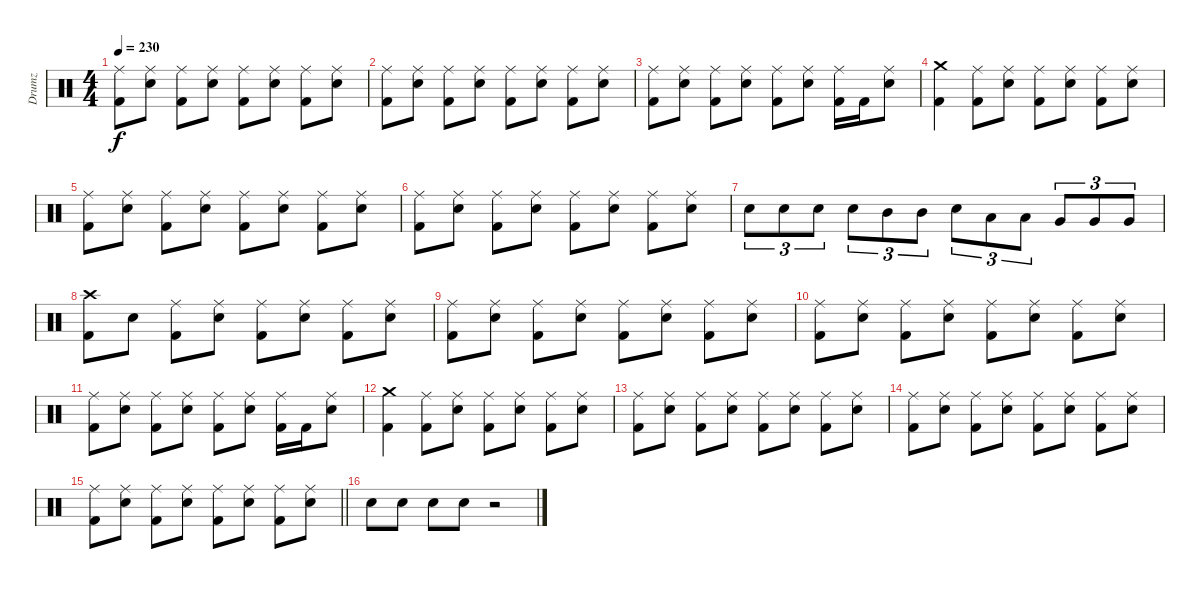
\track ("Drumz" "Drumz") {instrument percussion}
\staff {score}
\articulation defaults
\ts (4 4)
\tempo 230
\clef neutral
\ks c
("Ride (middle)" "Kick (hit) 2").8{dy f} ("Ride (middle)" "Electric Snare (hit)").8 ("Ride (middle)" "Kick (hit) 2").8 ("Ride (middle)" "Electric Snare (hit)").8 ("Ride (middle)" "Kick (hit) 2").8 ("Ride (middle)" "Electric Snare (hit)").8 ("Ride (middle)" "Kick (hit) 2").8 ("Ride (middle)" "Electric Snare (hit)").8 |
("Ride (middle)" "Kick (hit) 2").8 ("Ride (middle)" "Electric Snare (hit)").8 ("Ride (middle)" "Kick (hit) 2").8 ("Ride (middle)" "Electric Snare (hit)").8 ("Ride (middle)" "Kick (hit) 2").8 ("Ride (middle)" "Electric Snare (hit)").8 ("Ride (middle)" "Kick (hit) 2").8 ("Ride (middle)" "Electric Snare (hit)").8 |
("Ride (middle)" "Kick (hit) 2").8 ("Ride (middle)" "Electric Snare (hit)").8 ("Ride (middle)" "Kick (hit) 2").8 ("Ride (middle)" "Electric Snare (hit)").8 ("Ride (middle)" "Kick (hit) 2").8 ("Ride (middle)" "Electric Snare (hit)").8 ("Ride (middle)" "Kick (hit) 2").16 "Kick (hit) 2".16 ("Ride (middle)" "Electric Snare (hit)").8 |
("Crash medium (hit)" "Kick (hit) 2").4 ("Ride (middle)" "Kick (hit) 2").8 ("Ride (middle)" "Electric Snare (hit)").8 ("Ride (middle)" "Kick (hit) 2").8 ("Ride (middle)" "Electric Snare (hit)").8 ("Ride (middle)" "Kick (hit) 2").8 ("Ride (middle)" "Electric Snare (hit)").8 |
("Ride (middle)" "Kick (hit) 2").8 ("Ride (middle)" "Electric Snare (hit)").8 ("Ride (middle)" "Kick (hit) 2").8 ("Ride (middle)" "Electric Snare (hit)").8 ("Ride (middle)" "Kick (hit) 2").8 ("Ride (middle)" "Electric Snare (hit)").8 ("Ride (middle)" "Kick (hit) 2").8 ("Ride (middle)" "Electric Snare (hit)").8 |
("Ride (middle)" "Kick (hit) 2").8 ("Ride (middle)" "Electric Snare (hit)").8 ("Ride (middle)" "Kick (hit) 2").8 ("Ride (middle)" "Electric Snare (hit)").8 ("Ride (middle)" "Kick (hit) 2").8 ("Ride (middle)" "Electric Snare (hit)").8 ("Ride (middle)" "Kick (hit) 2").8 ("Ride (middle)" "Electric Snare (hit)").8 |
"Electric Snare (hit)".8{tu (3 2)} "Electric Snare (hit)".8{tu (3 2)} "Electric Snare (hit)".8{tu (3 2)} "Electric Snare (hit)".8{tu (3 2)} "Mid Tom (hit)".8{tu (3 2)} "Mid Tom (hit)".8{tu (3 2)} "Electric Snare (hit)".8{tu (3 2)} "Low Tom (hit)".8{tu (3 2)} "Low Tom (hit)".8{tu (3 2)} "Very Low Tom (hit)".8{tu (3 2)} "Very Low Tom (hit)".8{tu (3 2)} "Very Low Tom (hit)".8{tu (3 2)} |
("Crash high (hit)" "Kick (hit) 2").8 "Electric Snare (hit)".8 ("Ride (middle)" "Kick (hit) 2").8 ("Ride (middle)" "Electric Snare (hit)").8 ("Ride (middle)" "Kick (hit) 2").8 ("Ride (middle)" "Electric Snare (hit)").8 ("Ride (middle)" "Kick (hit) 2").8 ("Ride (middle)" "Electric Snare (hit)").8 |
("Ride (middle)" "Kick (hit) 2").8 ("Ride (middle)" "Electric Snare (hit)").8 ("Ride (middle)" "Kick (hit) 2").8 ("Ride (middle)" "Electric Snare (hit)").8 ("Ride (middle)" "Kick (hit) 2").8 ("Ride (middle)" "Electric Snare (hit)").8 ("Ride (middle)" "Kick (hit) 2").8 ("Ride (middle)" "Electric Snare (hit)").8 |
("Ride (middle)" "Kick (hit) 2").8 ("Ride (middle)" "Electric Snare (hit)").8 ("Ride (middle)" "Kick (hit) 2").8 ("Ride (middle)" "Electric Snare (hit)").8 ("Ride (middle)" "Kick (hit) 2").8 ("Ride (middle)" "Electric Snare (hit)").8 ("Ride (middle)" "Kick (hit) 2").8 ("Ride (middle)" "Electric Snare (hit)").8 |
("Ride (middle)" "Kick (hit) 2").8 ("Ride (middle)" "Electric Snare (hit)").8 ("Ride (middle)" "Kick (hit) 2").8 ("Ride (middle)" "Electric Snare (hit)").8 ("Ride (middle)" "Kick (hit) 2").8 ("Ride (middle)" "Electric Snare (hit)").8 ("Ride (middle)" "Kick (hit) 2").16 "Kick (hit) 2".16 ("Ride (middle)" "Electric Snare (hit)").8 |
("Crash medium (hit)" "Kick (hit) 2").4 ("Ride (middle)" "Kick (hit) 2").8 ("Ride (middle)" "Electric Snare (hit)").8 ("Ride (middle)" "Kick (hit) 2").8 ("Ride (middle)" "Electric Snare (hit)").8 ("Ride (middle)" "Kick (hit) 2").8 ("Ride (middle)" "Electric Snare (hit)").8 |
("Ride (middle)" "Kick (hit) 2").8 ("Ride (middle)" "Electric Snare (hit)").8 ("Ride (middle)" "Kick (hit) 2").8 ("Ride (middle)" "Electric Snare (hit)").8 ("Ride (middle)" "Kick (hit) 2").8 ("Ride (middle)" "Electric Snare (hit)").8 ("Ride (middle)" "Kick (hit) 2").8 ("Ride (middle)" "Electric Snare (hit)").8 |
("Ride (middle)" "Kick (hit) 2").8 ("Ride (middle)" "Electric Snare (hit)").8 ("Ride (middle)" "Kick (hit) 2").8 ("Ride (middle)" "Electric Snare (hit)").8 ("Ride (middle)" "Kick (hit) 2").8 ("Ride (middle)" "Electric Snare (hit)").8 ("Ride (middle)" "Kick (hit) 2").8 ("Ride (middle)" "Electric Snare (hit)").8 |
\barLineRight lightlight
("Ride (middle)" "Kick (hit) 2").8 ("Ride (middle)" "Electric Snare (hit)").8 ("Ride (middle)" "Kick (hit) 2").8 ("Ride (middle)" "Electric Snare (hit)").8 ("Ride (middle)" "Kick (hit) 2").8 ("Ride (middle)" "Electric Snare (hit)").8 ("Ride (middle)" "Kick (hit) 2").8 ("Ride (middle)" "Electric Snare (hit)").8 |
"Electric Snare (hit)".8 "Electric Snare (hit)".8 "Electric Snare (hit)".8 "Electric Snare (hit)".8 r.2
